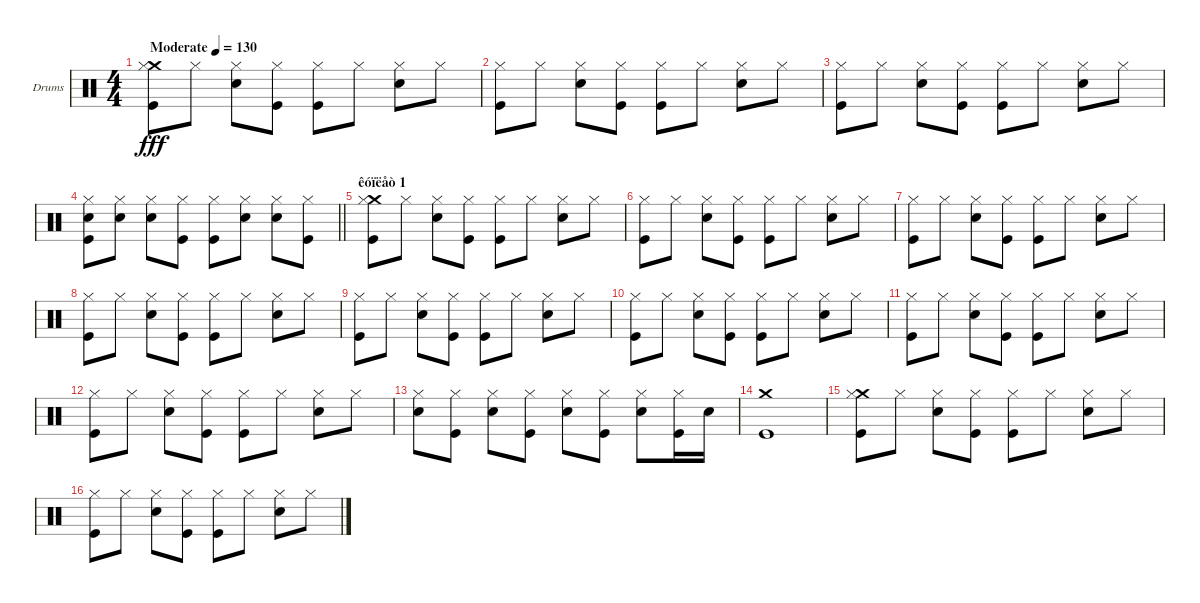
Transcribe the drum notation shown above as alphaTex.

\bracketExtendMode groupsimilarinstruments
\firstSystemTrackNameOrientation horizontal
\otherSystemsTrackNameOrientation horizontal
\track ("Drumkit" "Drums") {instrument percussion}
\staff {score}
\articulation defaults
\ts (4 4)
\beaming (8 2 2 2 2)
\tempo (130 "Moderate")
\clef neutral
\ks c
("Crash medium (hit)" "Hi-Hat (closed)" "Kick (hit)").8{dy fff} "Hi-Hat (closed)".8 ("Hi-Hat (closed)" "Snare (hit) 2").8 ("Hi-Hat (closed)" "Kick (hit)").8 ("Hi-Hat (closed)" "Kick (hit)").8 "Hi-Hat (closed)".8 ("Hi-Hat (closed)" "Snare (hit) 2").8 "Hi-Hat (closed)".8 |
("Hi-Hat (closed)" "Kick (hit)").8 "Hi-Hat (closed)".8 ("Hi-Hat (closed)" "Snare (hit) 2").8 ("Hi-Hat (closed)" "Kick (hit)").8 ("Hi-Hat (closed)" "Kick (hit)").8 "Hi-Hat (closed)".8 ("Hi-Hat (closed)" "Snare (hit) 2").8 "Hi-Hat (closed)".8 |
("Hi-Hat (closed)" "Kick (hit)").8 "Hi-Hat (closed)".8 ("Hi-Hat (closed)" "Snare (hit) 2").8 ("Hi-Hat (closed)" "Kick (hit)").8 ("Hi-Hat (closed)" "Kick (hit)").8 "Hi-Hat (closed)".8 ("Hi-Hat (closed)" "Snare (hit) 2").8 "Hi-Hat (closed)".8 |
\barLineRight lightlight
("Snare (hit) 2" "Hi-Hat (closed)" "Kick (hit)").8 ("Snare (hit) 2" "Hi-Hat (closed)").8 ("Hi-Hat (closed)" "Snare (hit) 2").8 ("Hi-Hat (closed)" "Kick (hit)").8 ("Hi-Hat (closed)" "Kick (hit)").8 ("Snare (hit) 2" "Hi-Hat (closed)").8 ("Snare (hit) 2" "Hi-Hat (closed)").8 ("Hi-Hat (closed)" "Kick (hit)").8 |
\section ("" "êóïëåò 1")
("Crash medium (hit)" "Hi-Hat (closed)" "Kick (hit)").8 "Hi-Hat (closed)".8 ("Hi-Hat (closed)" "Snare (hit) 2").8 ("Hi-Hat (closed)" "Kick (hit)").8 ("Hi-Hat (closed)" "Kick (hit)").8 "Hi-Hat (closed)".8 ("Hi-Hat (closed)" "Snare (hit) 2").8 "Hi-Hat (closed)".8 |
("Hi-Hat (closed)" "Kick (hit)").8 "Hi-Hat (closed)".8 ("Hi-Hat (closed)" "Snare (hit) 2").8 ("Hi-Hat (closed)" "Kick (hit)").8 ("Hi-Hat (closed)" "Kick (hit)").8 "Hi-Hat (closed)".8 ("Hi-Hat (closed)" "Snare (hit) 2").8 "Hi-Hat (closed)".8 |
("Hi-Hat (closed)" "Kick (hit)").8 "Hi-Hat (closed)".8 ("Hi-Hat (closed)" "Snare (hit) 2").8 ("Hi-Hat (closed)" "Kick (hit)").8 ("Hi-Hat (closed)" "Kick (hit)").8 "Hi-Hat (closed)".8 ("Hi-Hat (closed)" "Snare (hit) 2").8 "Hi-Hat (closed)".8 |
("Hi-Hat (closed)" "Kick (hit)").8 "Hi-Hat (closed)".8 ("Hi-Hat (closed)" "Snare (hit) 2").8 ("Hi-Hat (closed)" "Kick (hit)").8 ("Hi-Hat (closed)" "Kick (hit)").8 "Hi-Hat (closed)".8 ("Hi-Hat (closed)" "Snare (hit) 2").8 "Hi-Hat (closed)".8 |
("Hi-Hat (closed)" "Kick (hit)").8 "Hi-Hat (closed)".8 ("Hi-Hat (closed)" "Snare (hit) 2").8 ("Hi-Hat (closed)" "Kick (hit)").8 ("Hi-Hat (closed)" "Kick (hit)").8 "Hi-Hat (closed)".8 ("Hi-Hat (closed)" "Snare (hit) 2").8 "Hi-Hat (closed)".8 |
("Hi-Hat (closed)" "Kick (hit)").8 "Hi-Hat (closed)".8 ("Hi-Hat (closed)" "Snare (hit) 2").8 ("Hi-Hat (closed)" "Kick (hit)").8 ("Hi-Hat (closed)" "Kick (hit)").8 "Hi-Hat (closed)".8 ("Hi-Hat (closed)" "Snare (hit) 2").8 "Hi-Hat (closed)".8 |
("Hi-Hat (closed)" "Kick (hit)").8 "Hi-Hat (closed)".8 ("Hi-Hat (closed)" "Snare (hit) 2").8 ("Hi-Hat (closed)" "Kick (hit)").8 ("Hi-Hat (closed)" "Kick (hit)").8 "Hi-Hat (closed)".8 ("Hi-Hat (closed)" "Snare (hit) 2").8 "Hi-Hat (closed)".8 |
("Hi-Hat (closed)" "Kick (hit)").8 "Hi-Hat (closed)".8 ("Hi-Hat (closed)" "Snare (hit) 2").8 ("Hi-Hat (closed)" "Kick (hit)").8 ("Hi-Hat (closed)" "Kick (hit)").8 "Hi-Hat (closed)".8 ("Hi-Hat (closed)" "Snare (hit) 2").8 "Hi-Hat (closed)".8 |
("Hi-Hat (closed)" "Snare (hit) 2").8 ("Hi-Hat (closed)" "Kick (hit)").8 ("Hi-Hat (closed)" "Snare (hit) 2").8 ("Hi-Hat (closed)" "Kick (hit)").8 ("Hi-Hat (closed)" "Snare (hit) 2").8 ("Hi-Hat (closed)" "Kick (hit)").8 ("Hi-Hat (closed)" "Snare (hit) 2").8 ("Hi-Hat (closed)" "Kick (hit)").16 "Snare (hit) 2".16 |
("Crash medium (hit)" "Kick (hit)").1 |
("Crash medium (hit)" "Hi-Hat (closed)" "Kick (hit)").8 "Hi-Hat (closed)".8 ("Hi-Hat (closed)" "Snare (hit) 2").8 ("Hi-Hat (closed)" "Kick (hit)").8 ("Hi-Hat (closed)" "Kick (hit)").8 "Hi-Hat (closed)".8 ("Hi-Hat (closed)" "Snare (hit) 2").8 "Hi-Hat (closed)".8 |
("Hi-Hat (closed)" "Kick (hit)").8 "Hi-Hat (closed)".8 ("Hi-Hat (closed)" "Snare (hit) 2").8 ("Hi-Hat (closed)" "Kick (hit)").8 ("Hi-Hat (closed)" "Kick (hit)").8 "Hi-Hat (closed)".8 ("Hi-Hat (closed)" "Snare (hit) 2").8 "Hi-Hat (closed)".8
